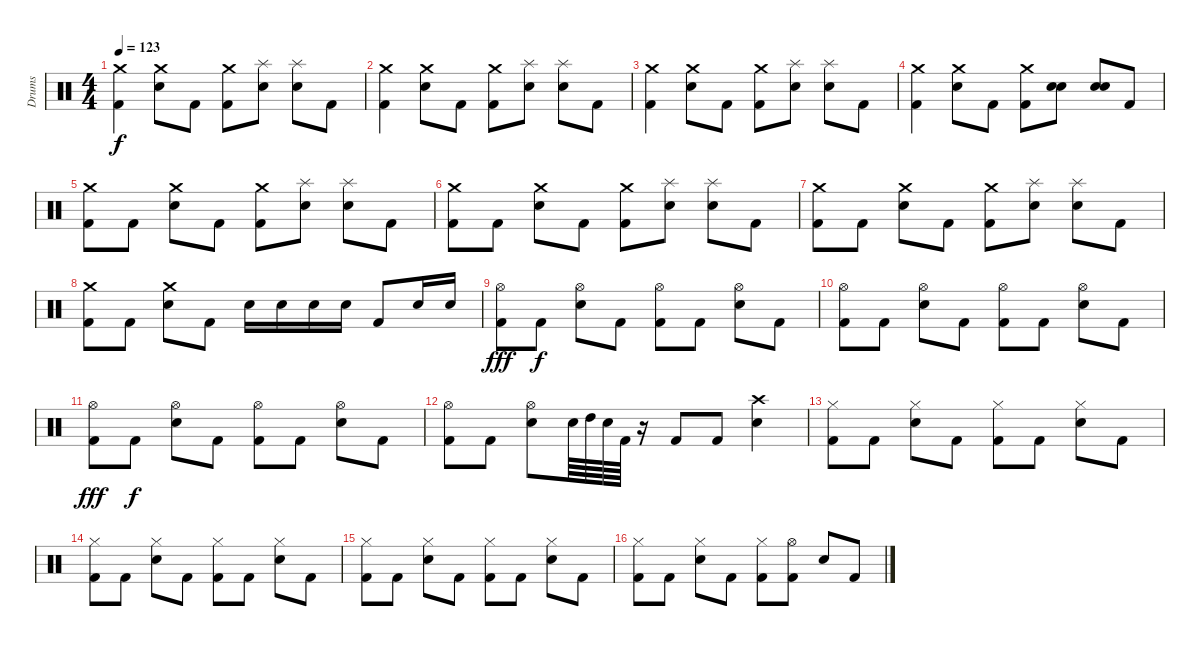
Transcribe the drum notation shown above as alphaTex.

\track ("Drums" "Drums") {instrument percussion}
\staff {score}
\articulation defaults
\ts (4 4)
\tempo 123
\clef neutral
\ks c
("Crash medium (hit)" "Kick (hit) 2").4{dy f} ("Crash medium (hit)" "Electric Snare (hit)").8 "Kick (hit) 2".8 ("Crash medium (hit)" "Kick (hit) 2").8 ("Splash (hit)" "Electric Snare (hit)").8 ("Splash (hit)" "Electric Snare (hit)").8 "Kick (hit) 2".8 |
("Crash medium (hit)" "Kick (hit) 2").4 ("Crash medium (hit)" "Electric Snare (hit)").8 "Kick (hit) 2".8 ("Crash medium (hit)" "Kick (hit) 2").8 ("Splash (hit)" "Electric Snare (hit)").8 ("Splash (hit)" "Electric Snare (hit)").8 "Kick (hit) 2".8 |
("Crash medium (hit)" "Kick (hit) 2").4 ("Crash medium (hit)" "Electric Snare (hit)").8 "Kick (hit) 2".8 ("Crash medium (hit)" "Kick (hit) 2").8 ("Splash (hit)" "Electric Snare (hit)").8 ("Splash (hit)" "Electric Snare (hit)").8 "Kick (hit) 2".8 |
("Crash medium (hit)" "Kick (hit) 2").4 ("Crash medium (hit)" "Electric Snare (hit)").8 "Kick (hit) 2".8 ("Crash medium (hit)" "Kick (hit) 2").8 ("Electric Snare (hit)" "Electric Snare (hit)").8 ("Electric Snare (hit)" "Electric Snare (hit)").8 "Kick (hit) 2".8 |
("Crash medium (hit)" "Kick (hit) 2").8 "Kick (hit) 2".8 ("Crash medium (hit)" "Electric Snare (hit)").8 "Kick (hit) 2".8 ("Crash medium (hit)" "Kick (hit) 2").8 ("Splash (hit)" "Electric Snare (hit)").8 ("Splash (hit)" "Electric Snare (hit)").8 "Kick (hit) 2".8 |
("Crash medium (hit)" "Kick (hit) 2").8 "Kick (hit) 2".8 ("Crash medium (hit)" "Electric Snare (hit)").8 "Kick (hit) 2".8 ("Crash medium (hit)" "Kick (hit) 2").8 ("Splash (hit)" "Snare (hit)").8 ("Splash (hit)" "Electric Snare (hit)").8 "Kick (hit) 2".8 |
("Crash medium (hit)" "Kick (hit) 2").8 "Kick (hit) 2".8 ("Crash medium (hit)" "Electric Snare (hit)").8 "Kick (hit) 2".8 ("Crash medium (hit)" "Kick (hit) 2").8 ("Splash (hit)" "Electric Snare (hit)").8 ("Splash (hit)" "Electric Snare (hit)").8 "Kick (hit) 2".8 |
("Crash medium (hit)" "Kick (hit) 2").8 "Kick (hit) 2".8 ("Crash medium (hit)" "Electric Snare (hit)").8 "Kick (hit) 2".8 "Electric Snare (hit)".16 "Electric Snare (hit)".16 "Electric Snare (hit)".16 "Electric Snare (hit)".16 "Kick (hit) 2".8 "Electric Snare (hit)".16 "Electric Snare (hit)".16 |
("Hi-Hat (open)" "Kick (hit) 2").8{dy fff} "Kick (hit) 2".8{dy f} ("Hi-Hat (open)" "Electric Snare (hit)").8 "Kick (hit) 2".8 ("Hi-Hat (open)" "Kick (hit) 2").8 "Kick (hit) 2".8 ("Hi-Hat (open)" "Electric Snare (hit)").8 "Kick (hit) 2".8 |
("Hi-Hat (open)" "Kick (hit) 2").8 "Kick (hit) 2".8 ("Hi-Hat (open)" "Electric Snare (hit)").8 "Kick (hit) 2".8 ("Hi-Hat (open)" "Kick (hit) 2").8 "Kick (hit) 2".8 ("Hi-Hat (open)" "Electric Snare (hit)").8 "Kick (hit) 2".8 |
("Hi-Hat (open)" "Kick (hit) 2").8{dy fff} "Kick (hit) 2".8{dy f} ("Hi-Hat (open)" "Electric Snare (hit)").8 "Kick (hit) 2".8 ("Hi-Hat (open)" "Kick (hit) 2").8 "Kick (hit) 2".8 ("Hi-Hat (open)" "Electric Snare (hit)").8 "Kick (hit) 2".8 |
("Hi-Hat (open)" "Kick (hit) 2").8 "Kick (hit) 2".8 ("Hi-Hat (open)" "Electric Snare (hit)").8 "Electric Snare (hit)".64 "High Tom (hit)".64 "Electric Snare (hit)".64 "Kick (hit) 2".64 r.16 "Kick (hit) 2".8 "Kick (hit) 2".8 ("Crash high (hit)" "Electric Snare (hit)").4 |
("Hi-Hat (closed)" "Kick (hit) 2").8 "Kick (hit) 2".8 ("Hi-Hat (closed)" "Electric Snare (hit)").8 "Kick (hit) 2".8 ("Hi-Hat (closed)" "Kick (hit) 2").8 "Kick (hit) 2".8 ("Hi-Hat (closed)" "Electric Snare (hit)").8 "Kick (hit) 2".8 |
("Hi-Hat (closed)" "Kick (hit) 2").8 "Kick (hit) 2".8 ("Hi-Hat (closed)" "Electric Snare (hit)").8 "Kick (hit) 2".8 ("Hi-Hat (closed)" "Kick (hit) 2").8 "Kick (hit) 2".8 ("Hi-Hat (closed)" "Electric Snare (hit)").8 "Kick (hit) 2".8 |
("Hi-Hat (closed)" "Kick (hit) 2").8 "Kick (hit) 2".8 ("Hi-Hat (closed)" "Electric Snare (hit)").8 "Kick (hit) 2".8 ("Hi-Hat (closed)" "Kick (hit) 2").8 "Kick (hit) 2".8 ("Hi-Hat (closed)" "Electric Snare (hit)").8 "Kick (hit) 2".8 |
("Hi-Hat (closed)" "Kick (hit) 2").8 "Kick (hit) 2".8 ("Hi-Hat (closed)" "Electric Snare (hit)").8 "Kick (hit) 2".8 ("Hi-Hat (closed)" "Kick (hit) 2").8 ("Hi-Hat (open)" "Kick (hit) 2").8 "Electric Snare (hit)".8 "Kick (hit) 2".8
